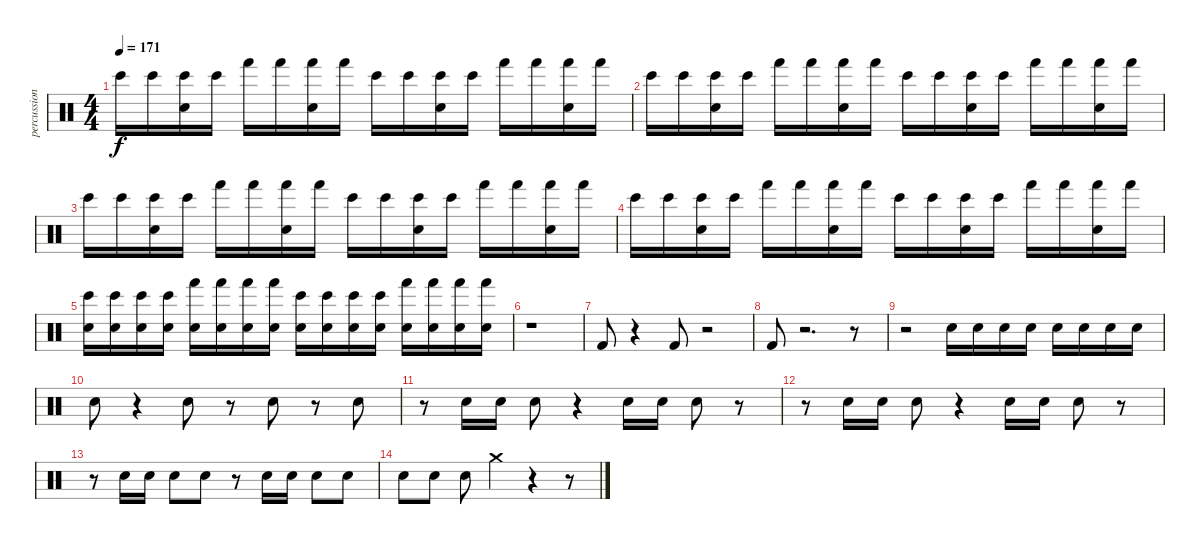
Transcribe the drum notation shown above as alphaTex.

\track ("percussion" "percussion") {instrument percussion}
\staff {score}
\articulation defaults
\ts (4 4)
\tempo 171
\clef neutral
\ks c "Bongo High (hit)".16{dy f} "Bongo High (hit)".16
("Electric Snare (hit)" "Bongo High (hit)").16 "Bongo High (hit)".16 "Hand (hit)".16 "Hand (hit)".16 ("Electric Snare (hit)" "Hand (hit)").16 "Hand (hit)".16 "Bongo High (hit)".16 "Bongo High (hit)".16 ("Electric Snare (hit)" "Bongo High (hit)").16 "Bongo High (hit)".16 "Hand (hit)".16 "Hand (hit)".16 ("Electric Snare (hit)" "Hand (hit)").16 "Hand (hit)".16 |
"Bongo High (hit)".16 "Bongo High (hit)".16 ("Electric Snare (hit)" "Bongo High (hit)").16 "Bongo High (hit)".16 "Hand (hit)".16 "Hand (hit)".16 ("Electric Snare (hit)" "Hand (hit)").16 "Hand (hit)".16 "Bongo High (hit)".16 "Bongo High (hit)".16 ("Electric Snare (hit)" "Bongo High (hit)").16 "Bongo High (hit)".16 "Hand (hit)".16 "Hand (hit)".16 ("Electric Snare (hit)" "Hand (hit)").16 "Hand (hit)".16 |
"Bongo High (hit)".16 "Bongo High (hit)".16 ("Electric Snare (hit)" "Bongo High (hit)").16 "Bongo High (hit)".16 "Hand (hit)".16 "Hand (hit)".16 ("Electric Snare (hit)" "Hand (hit)").16 "Hand (hit)".16 "Bongo High (hit)".16 "Bongo High (hit)".16 ("Electric Snare (hit)" "Bongo High (hit)").16 "Bongo High (hit)".16 "Hand (hit)".16 "Hand (hit)".16 ("Electric Snare (hit)" "Hand (hit)").16 "Hand (hit)".16 |
"Bongo High (hit)".16 "Bongo High (hit)".16 ("Electric Snare (hit)" "Bongo High (hit)").16 "Bongo High (hit)".16 "Hand (hit)".16 "Hand (hit)".16 ("Electric Snare (hit)" "Hand (hit)").16 "Hand (hit)".16 "Bongo High (hit)".16 "Bongo High (hit)".16 ("Electric Snare (hit)" "Bongo High (hit)").16 "Bongo High (hit)".16 "Hand (hit)".16 "Hand (hit)".16 ("Electric Snare (hit)" "Hand (hit)").16 "Hand (hit)".16 |
("Bongo High (hit)" "Electric Snare (hit)").16 ("Bongo High (hit)" "Electric Snare (hit)").16 ("Bongo High (hit)" "Electric Snare (hit)").16 ("Bongo High (hit)" "Electric Snare (hit)").16 ("Hand (hit)" "Electric Snare (hit)").16 ("Hand (hit)" "Electric Snare (hit)").16 ("Hand (hit)" "Electric Snare (hit)").16 ("Hand (hit)" "Electric Snare (hit)").16 ("Bongo High (hit)" "Electric Snare (hit)").16 ("Bongo High (hit)" "Electric Snare (hit)").16 ("Bongo High (hit)" "Electric Snare (hit)").16 ("Bongo High (hit)" "Electric Snare (hit)").16 ("Hand (hit)" "Electric Snare (hit)").16 ("Hand (hit)" "Electric Snare (hit)").16 ("Hand (hit)" "Electric Snare (hit)").16 ("Hand (hit)" "Electric Snare (hit)").16 |
r.1 |
"Kick (hit) 2".8 r.4 "Kick (hit) 2".8 r.2 |
"Kick (hit) 2".8 r.2{d} r.8 |
r.2 "Electric Snare (hit)".16 "Electric Snare (hit)".16 "Electric Snare (hit)".16 "Electric Snare (hit)".16 "Electric Snare (hit)".16 "Electric Snare (hit)".16 "Electric Snare (hit)".16 "Electric Snare (hit)".16 |
"Electric Snare (hit)".8 r.4 "Electric Snare (hit)".8 r.8 "Electric Snare (hit)".8 r.8 "Electric Snare (hit)".8 |
r.8 "Electric Snare (hit)".16 "Electric Snare (hit)".16 "Electric Snare (hit)".8 r.4 "Electric Snare (hit)".16 "Electric Snare (hit)".16 "Electric Snare (hit)".8 r.8 |
r.8 "Electric Snare (hit)".16 "Electric Snare (hit)".16 "Electric Snare (hit)".8 r.4 "Electric Snare (hit)".16 "Electric Snare (hit)".16 "Electric Snare (hit)".8 r.8 |
r.8 "Electric Snare (hit)".16 "Electric Snare (hit)".16 "Electric Snare (hit)".8 "Electric Snare (hit)".8 r.8 "Electric Snare (hit)".16 "Electric Snare (hit)".16 "Electric Snare (hit)".8 "Electric Snare (hit)".8 |
"Electric Snare (hit)".8 "Electric Snare (hit)".8 "Electric Snare (hit)".8 "Crash medium (hit)".4 r.4 r.8
